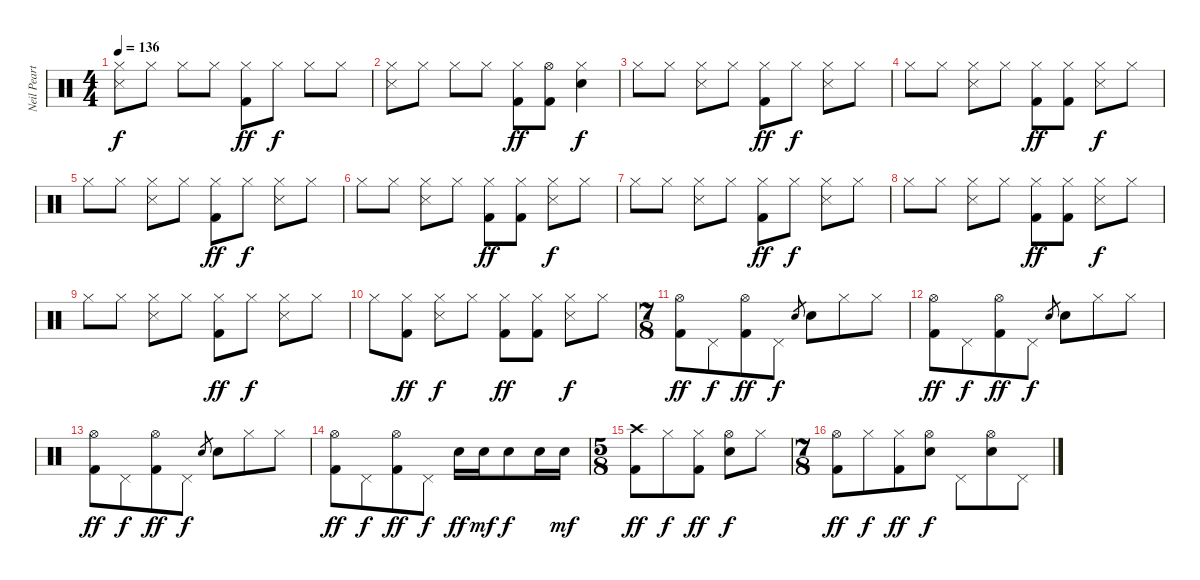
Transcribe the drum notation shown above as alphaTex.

\track ("Neil Peart" "Neil Peart") {instrument percussion}
\staff {score}
\articulation defaults
\ts (4 4)
\tempo 136
\clef neutral
\ks c
("Hi-Hat (closed)" "Snare (side stick) 3").8{dy f} "Hi-Hat (closed)".8 "Hi-Hat (closed)".8 "Hi-Hat (closed)".8 ("Hi-Hat (closed)" "Kick (hit) 2").8{dy ff} "Hi-Hat (closed)".8{dy f} "Hi-Hat (closed)".8 "Hi-Hat (closed)".8 |
("Hi-Hat (closed)" "Snare (side stick) 3").8 "Hi-Hat (closed)".8 "Hi-Hat (closed)".8 "Hi-Hat (closed)".8 ("Hi-Hat (closed)" "Kick (hit) 2").8{dy ff} ("Hi-Hat (open)" "Kick (hit) 2").8 ("Hi-Hat (closed)" "Snare (hit) 2").4{dy f} |
"Hi-Hat (closed)".8 "Hi-Hat (closed)".8 ("Hi-Hat (closed)" "Snare (side stick) 3").8 "Hi-Hat (closed)".8 ("Hi-Hat (closed)" "Kick (hit) 2").8{dy ff} "Hi-Hat (closed)".8{dy f} ("Hi-Hat (closed)" "Snare (side stick) 3").8 "Hi-Hat (closed)".8 |
"Hi-Hat (closed)".8 "Hi-Hat (closed)".8 ("Hi-Hat (closed)" "Snare (side stick) 3").8 "Hi-Hat (closed)".8 ("Hi-Hat (closed)" "Kick (hit) 2").8{dy ff} ("Hi-Hat (closed)" "Kick (hit) 2").8 ("Hi-Hat (closed)" "Snare (side stick) 3").8{dy f} "Hi-Hat (closed)".8 |
"Hi-Hat (closed)".8 "Hi-Hat (closed)".8 ("Hi-Hat (closed)" "Snare (side stick) 3").8 "Hi-Hat (closed)".8 ("Hi-Hat (closed)" "Kick (hit) 2").8{dy ff} "Hi-Hat (closed)".8{dy f} ("Hi-Hat (closed)" "Snare (side stick) 3").8 "Hi-Hat (closed)".8 |
"Hi-Hat (closed)".8 "Hi-Hat (closed)".8 ("Hi-Hat (closed)" "Snare (side stick) 3").8 "Hi-Hat (closed)".8 ("Hi-Hat (closed)" "Kick (hit) 2").8{dy ff} ("Hi-Hat (closed)" "Kick (hit) 2").8 ("Hi-Hat (closed)" "Snare (side stick) 3").8{dy f} "Hi-Hat (closed)".8 |
"Hi-Hat (closed)".8 "Hi-Hat (closed)".8 ("Hi-Hat (closed)" "Snare (side stick) 3").8 "Hi-Hat (closed)".8 ("Hi-Hat (closed)" "Kick (hit) 2").8{dy ff} "Hi-Hat (closed)".8{dy f} ("Hi-Hat (closed)" "Snare (side stick) 3").8 "Hi-Hat (closed)".8 |
"Hi-Hat (closed)".8 "Hi-Hat (closed)".8 ("Hi-Hat (closed)" "Snare (side stick) 3").8 "Hi-Hat (closed)".8 ("Hi-Hat (closed)" "Kick (hit) 2").8{dy ff} ("Hi-Hat (closed)" "Kick (hit) 2").8 ("Hi-Hat (closed)" "Snare (side stick) 3").8{dy f} "Hi-Hat (closed)".8 |
"Hi-Hat (closed)".8 "Hi-Hat (closed)".8 ("Hi-Hat (closed)" "Snare (side stick) 3").8 "Hi-Hat (closed)".8 ("Hi-Hat (closed)" "Kick (hit) 2").8{dy ff} "Hi-Hat (closed)".8{dy f} ("Hi-Hat (closed)" "Snare (side stick) 3").8 "Hi-Hat (closed)".8 |
"Hi-Hat (closed)".8 ("Hi-Hat (closed)" "Kick (hit) 2").8{dy ff} ("Hi-Hat (closed)" "Snare (side stick) 3").8{dy f} "Hi-Hat (closed)".8 ("Hi-Hat (closed)" "Kick (hit) 2").8{dy ff} ("Hi-Hat (closed)" "Kick (hit) 2").8 ("Hi-Hat (closed)" "Snare (side stick) 3").8{dy f} "Hi-Hat (closed)".8 |
\ts (7 8)
("Hi-Hat (open)" "Kick (hit) 2").8{dy ff} "Pedal Hi-Hat (hit)".8{dy f} ("Hi-Hat (open)" "Kick (hit) 2").8{dy ff} "Pedal Hi-Hat (hit)".8{dy f} "Snare (hit) 2".8{gr} "Snare (hit) 2".8 "Hi-Hat (closed)".8 "Hi-Hat (closed)".8 |
("Hi-Hat (open)" "Kick (hit) 2").8{dy ff} "Pedal Hi-Hat (hit)".8{dy f} ("Hi-Hat (open)" "Kick (hit) 2").8{dy ff} "Pedal Hi-Hat (hit)".8{dy f} "Snare (hit) 2".8{gr} "Snare (hit) 2".8 "Hi-Hat (closed)".8 "Hi-Hat (closed)".8 |
("Hi-Hat (open)" "Kick (hit) 2").8{dy ff} "Pedal Hi-Hat (hit)".8{dy f} ("Hi-Hat (open)" "Kick (hit) 2").8{dy ff} "Pedal Hi-Hat (hit)".8{dy f} "Snare (hit) 2".8{gr} "Snare (hit) 2".8 "Hi-Hat (closed)".8 "Hi-Hat (closed)".8 |
("Hi-Hat (open)" "Kick (hit) 2").8{dy ff} "Pedal Hi-Hat (hit)".8{dy f} ("Hi-Hat (open)" "Kick (hit) 2").8{dy ff} "Pedal Hi-Hat (hit)".8{dy f} "Snare (hit) 2".16{dy ff} "Snare (hit) 2".16{dy mf} "Snare (hit) 2".8{dy f} "Snare (hit) 2".16 "Snare (hit) 2".16{dy mf} |
\ts (5 8)
("Crash high (hit)" "Kick (hit) 2").8{dy ff} "Hi-Hat (closed)".8{dy f} ("Hi-Hat (closed)" "Kick (hit) 2").8{dy ff} ("Hi-Hat (open)" "Snare (hit) 2").8{dy f} "Hi-Hat (closed)".8 |
\ts (7 8)
("Hi-Hat (open)" "Kick (hit) 2").8{dy ff} "Hi-Hat (closed)".8{dy f} ("Hi-Hat (closed)" "Kick (hit) 2").8{dy ff} ("Hi-Hat (open)" "Snare (hit) 2").8{dy f} "Pedal Hi-Hat (hit)".8 ("Hi-Hat (open)" "Snare (hit) 2").8 "Pedal Hi-Hat (hit)".8
